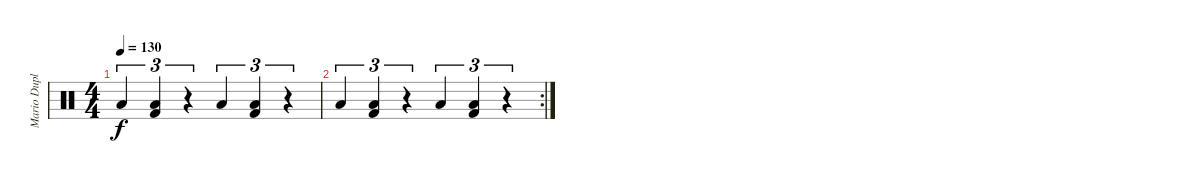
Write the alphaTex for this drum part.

\track ("Mario Duplantier" "Mario Dupl") {instrument percussion}
\staff {score}
\articulation defaults
\ts (4 4)
\tempo 130
\clef neutral
\ks c "Low Floor Tom (hit)".4{tu (3 2) dy f}
("Low Floor Tom (hit)" "Kick (hit) 2").4{tu (3 2)} r.4{tu (3 2)} "Low Floor Tom (hit)".4{tu (3 2)} ("Low Floor Tom (hit)" "Kick (hit) 2").4{tu (3 2)} r.4{tu (3 2)} |
\rc 2 "Low Floor Tom (hit)".4{tu (3 2)}
("Low Floor Tom (hit)" "Kick (hit) 2").4{tu (3 2)} r.4{tu (3 2)} "Low Floor Tom (hit)".4{tu (3 2)} ("Low Floor Tom (hit)" "Kick (hit) 2").4{tu (3 2)} r.4{tu (3 2)}
